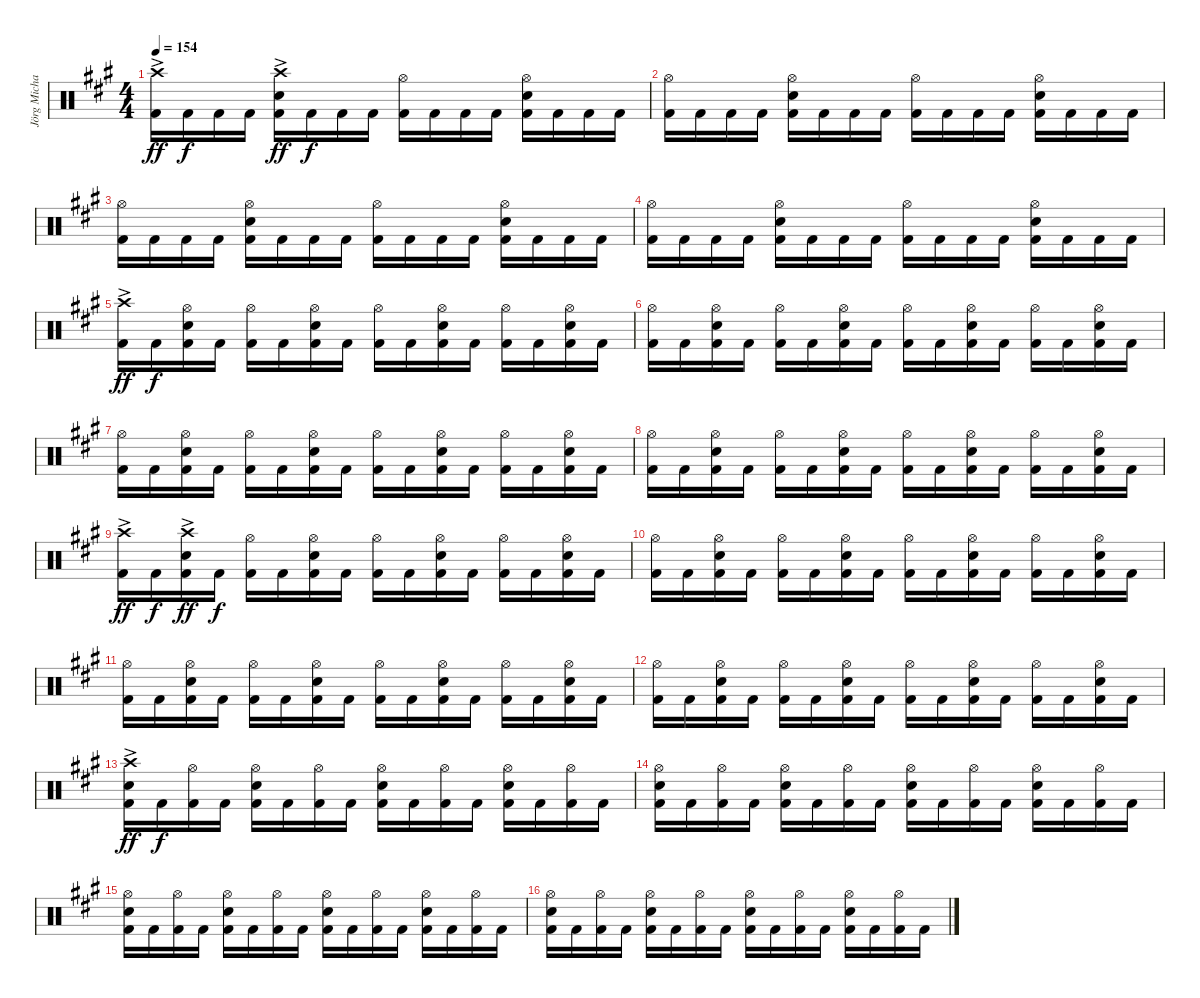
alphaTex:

\track ("Jörg Michael" "Jörg Micha") {instrument percussion}
\staff {score}
\articulation defaults
\ts (4 4)
\tempo 154
\clef neutral
\ks a
("Crash high (hit)"{ac} "Kick (hit) 2"{ac}).16{dy ff} "Kick (hit) 2".16{dy f} "Kick (hit) 2".16 "Kick (hit) 2".16 ("Electric Snare (hit)"{ac} "Kick (hit) 2"{ac} "Crash high (hit)"{ac}).16{dy ff} "Kick (hit) 2".16{dy f} "Kick (hit) 2".16 "Kick (hit) 2".16 ("Kick (hit) 2" "Hi-Hat (open)").16 "Kick (hit) 2".16 "Kick (hit) 2".16 "Kick (hit) 2".16 ("Electric Snare (hit)" "Kick (hit) 2" "Hi-Hat (open)").16 "Kick (hit) 2".16 "Kick (hit) 2".16 "Kick (hit) 2".16 |
("Hi-Hat (open)" "Kick (hit) 2").16 "Kick (hit) 2".16 "Kick (hit) 2".16 "Kick (hit) 2".16 ("Electric Snare (hit)" "Kick (hit) 2" "Hi-Hat (open)").16 "Kick (hit) 2".16 "Kick (hit) 2".16 "Kick (hit) 2".16 ("Kick (hit) 2" "Hi-Hat (open)").16 "Kick (hit) 2".16 "Kick (hit) 2".16 "Kick (hit) 2".16 ("Electric Snare (hit)" "Kick (hit) 2" "Hi-Hat (open)").16 "Kick (hit) 2".16 "Kick (hit) 2".16 "Kick (hit) 2".16 |
("Hi-Hat (open)" "Kick (hit) 2").16 "Kick (hit) 2".16 "Kick (hit) 2".16 "Kick (hit) 2".16 ("Electric Snare (hit)" "Kick (hit) 2" "Hi-Hat (open)").16 "Kick (hit) 2".16 "Kick (hit) 2".16 "Kick (hit) 2".16 ("Kick (hit) 2" "Hi-Hat (open)").16 "Kick (hit) 2".16 "Kick (hit) 2".16 "Kick (hit) 2".16 ("Electric Snare (hit)" "Kick (hit) 2" "Hi-Hat (open)").16 "Kick (hit) 2".16 "Kick (hit) 2".16 "Kick (hit) 2".16 |
("Hi-Hat (open)" "Kick (hit) 2").16 "Kick (hit) 2".16 "Kick (hit) 2".16 "Kick (hit) 2".16 ("Electric Snare (hit)" "Kick (hit) 2" "Hi-Hat (open)").16 "Kick (hit) 2".16 "Kick (hit) 2".16 "Kick (hit) 2".16 ("Kick (hit) 2" "Hi-Hat (open)").16 "Kick (hit) 2".16 "Kick (hit) 2".16 "Kick (hit) 2".16 ("Electric Snare (hit)" "Kick (hit) 2" "Hi-Hat (open)").16 "Kick (hit) 2".16 "Kick (hit) 2".16 "Kick (hit) 2".16 |
("Crash high (hit)"{ac} "Kick (hit) 2"{ac}).16{dy ff} "Kick (hit) 2".16{dy f} ("Electric Snare (hit)" "Kick (hit) 2" "Hi-Hat (open)").16 "Kick (hit) 2".16 ("Hi-Hat (open)" "Kick (hit) 2").16 "Kick (hit) 2".16 ("Hi-Hat (open)" "Kick (hit) 2" "Electric Snare (hit)").16 "Kick (hit) 2".16 ("Kick (hit) 2" "Hi-Hat (open)").16 "Kick (hit) 2".16 ("Hi-Hat (open)" "Kick (hit) 2" "Electric Snare (hit)").16 "Kick (hit) 2".16 ("Kick (hit) 2" "Hi-Hat (open)").16 "Kick (hit) 2".16 ("Hi-Hat (open)" "Kick (hit) 2" "Electric Snare (hit)").16 "Kick (hit) 2".16 |
("Hi-Hat (open)" "Kick (hit) 2").16 "Kick (hit) 2".16 ("Electric Snare (hit)" "Kick (hit) 2" "Hi-Hat (open)").16 "Kick (hit) 2".16 ("Hi-Hat (open)" "Kick (hit) 2").16 "Kick (hit) 2".16 ("Hi-Hat (open)" "Kick (hit) 2" "Electric Snare (hit)").16 "Kick (hit) 2".16 ("Kick (hit) 2" "Hi-Hat (open)").16 "Kick (hit) 2".16 ("Hi-Hat (open)" "Kick (hit) 2" "Electric Snare (hit)").16 "Kick (hit) 2".16 ("Kick (hit) 2" "Hi-Hat (open)").16 "Kick (hit) 2".16 ("Hi-Hat (open)" "Kick (hit) 2" "Electric Snare (hit)").16 "Kick (hit) 2".16 |
("Hi-Hat (open)" "Kick (hit) 2").16 "Kick (hit) 2".16 ("Electric Snare (hit)" "Kick (hit) 2" "Hi-Hat (open)").16 "Kick (hit) 2".16 ("Hi-Hat (open)" "Kick (hit) 2").16 "Kick (hit) 2".16 ("Hi-Hat (open)" "Kick (hit) 2" "Electric Snare (hit)").16 "Kick (hit) 2".16 ("Kick (hit) 2" "Hi-Hat (open)").16 "Kick (hit) 2".16 ("Hi-Hat (open)" "Kick (hit) 2" "Electric Snare (hit)").16 "Kick (hit) 2".16 ("Kick (hit) 2" "Hi-Hat (open)").16 "Kick (hit) 2".16 ("Hi-Hat (open)" "Kick (hit) 2" "Electric Snare (hit)").16 "Kick (hit) 2".16 |
("Hi-Hat (open)" "Kick (hit) 2").16 "Kick (hit) 2".16 ("Electric Snare (hit)" "Kick (hit) 2" "Hi-Hat (open)").16 "Kick (hit) 2".16 ("Hi-Hat (open)" "Kick (hit) 2").16 "Kick (hit) 2".16 ("Hi-Hat (open)" "Kick (hit) 2" "Electric Snare (hit)").16 "Kick (hit) 2".16 ("Kick (hit) 2" "Hi-Hat (open)").16 "Kick (hit) 2".16 ("Hi-Hat (open)" "Kick (hit) 2" "Electric Snare (hit)").16 "Kick (hit) 2".16 ("Kick (hit) 2" "Hi-Hat (open)").16 "Kick (hit) 2".16 ("Hi-Hat (open)" "Kick (hit) 2" "Electric Snare (hit)").16 "Kick (hit) 2".16 |
("Crash high (hit)"{ac} "Kick (hit) 2"{ac}).16{dy ff} "Kick (hit) 2".16{dy f} ("Electric Snare (hit)"{ac} "Kick (hit) 2"{ac} "Crash high (hit)"{ac}).16{dy ff} "Kick (hit) 2".16{dy f} ("Hi-Hat (open)" "Kick (hit) 2").16 "Kick (hit) 2".16 ("Hi-Hat (open)" "Kick (hit) 2" "Electric Snare (hit)").16 "Kick (hit) 2".16 ("Kick (hit) 2" "Hi-Hat (open)").16 "Kick (hit) 2".16 ("Hi-Hat (open)" "Kick (hit) 2" "Electric Snare (hit)").16 "Kick (hit) 2".16 ("Kick (hit) 2" "Hi-Hat (open)").16 "Kick (hit) 2".16 ("Hi-Hat (open)" "Kick (hit) 2" "Electric Snare (hit)").16 "Kick (hit) 2".16 |
("Hi-Hat (open)" "Kick (hit) 2").16 "Kick (hit) 2".16 ("Electric Snare (hit)" "Kick (hit) 2" "Hi-Hat (open)").16 "Kick (hit) 2".16 ("Hi-Hat (open)" "Kick (hit) 2").16 "Kick (hit) 2".16 ("Hi-Hat (open)" "Kick (hit) 2" "Electric Snare (hit)").16 "Kick (hit) 2".16 ("Kick (hit) 2" "Hi-Hat (open)").16 "Kick (hit) 2".16 ("Hi-Hat (open)" "Kick (hit) 2" "Electric Snare (hit)").16 "Kick (hit) 2".16 ("Kick (hit) 2" "Hi-Hat (open)").16 "Kick (hit) 2".16 ("Hi-Hat (open)" "Kick (hit) 2" "Electric Snare (hit)").16 "Kick (hit) 2".16 |
("Hi-Hat (open)" "Kick (hit) 2").16 "Kick (hit) 2".16 ("Electric Snare (hit)" "Kick (hit) 2" "Hi-Hat (open)").16 "Kick (hit) 2".16 ("Hi-Hat (open)" "Kick (hit) 2").16 "Kick (hit) 2".16 ("Hi-Hat (open)" "Kick (hit) 2" "Electric Snare (hit)").16 "Kick (hit) 2".16 ("Kick (hit) 2" "Hi-Hat (open)").16 "Kick (hit) 2".16 ("Hi-Hat (open)" "Kick (hit) 2" "Electric Snare (hit)").16 "Kick (hit) 2".16 ("Kick (hit) 2" "Hi-Hat (open)").16 "Kick (hit) 2".16 ("Hi-Hat (open)" "Kick (hit) 2" "Electric Snare (hit)").16 "Kick (hit) 2".16 |
("Hi-Hat (open)" "Kick (hit) 2").16 "Kick (hit) 2".16 ("Electric Snare (hit)" "Kick (hit) 2" "Hi-Hat (open)").16 "Kick (hit) 2".16 ("Hi-Hat (open)" "Kick (hit) 2").16 "Kick (hit) 2".16 ("Hi-Hat (open)" "Kick (hit) 2" "Electric Snare (hit)").16 "Kick (hit) 2".16 ("Kick (hit) 2" "Hi-Hat (open)").16 "Kick (hit) 2".16 ("Hi-Hat (open)" "Kick (hit) 2" "Electric Snare (hit)").16 "Kick (hit) 2".16 ("Kick (hit) 2" "Hi-Hat (open)").16 "Kick (hit) 2".16 ("Hi-Hat (open)" "Kick (hit) 2" "Electric Snare (hit)").16 "Kick (hit) 2".16 |
("Crash high (hit)"{ac} "Kick (hit) 2"{ac} "Electric Snare (hit)").16{dy ff} "Kick (hit) 2".16{dy f} ("Kick (hit) 2" "Hi-Hat (open)").16 "Kick (hit) 2".16 ("Hi-Hat (open)" "Kick (hit) 2" "Electric Snare (hit)").16 "Kick (hit) 2".16 ("Hi-Hat (open)" "Kick (hit) 2").16 "Kick (hit) 2".16 ("Hi-Hat (open)" "Kick (hit) 2" "Electric Snare (hit)").16 "Kick (hit) 2".16 ("Hi-Hat (open)" "Kick (hit) 2").16 "Kick (hit) 2".16 ("Hi-Hat (open)" "Kick (hit) 2" "Electric Snare (hit)").16 "Kick (hit) 2".16 ("Hi-Hat (open)" "Kick (hit) 2").16 "Kick (hit) 2".16 |
("Hi-Hat (open)" "Kick (hit) 2" "Electric Snare (hit)").16 "Kick (hit) 2".16 ("Kick (hit) 2" "Hi-Hat (open)").16 "Kick (hit) 2".16 ("Hi-Hat (open)" "Kick (hit) 2" "Electric Snare (hit)").16 "Kick (hit) 2".16 ("Hi-Hat (open)" "Kick (hit) 2").16 "Kick (hit) 2".16 ("Hi-Hat (open)" "Kick (hit) 2" "Electric Snare (hit)").16 "Kick (hit) 2".16 ("Hi-Hat (open)" "Kick (hit) 2").16 "Kick (hit) 2".16 ("Hi-Hat (open)" "Kick (hit) 2" "Electric Snare (hit)").16 "Kick (hit) 2".16 ("Hi-Hat (open)" "Kick (hit) 2").16 "Kick (hit) 2".16 |
("Hi-Hat (open)" "Kick (hit) 2" "Electric Snare (hit)").16 "Kick (hit) 2".16 ("Kick (hit) 2" "Hi-Hat (open)").16 "Kick (hit) 2".16 ("Hi-Hat (open)" "Kick (hit) 2" "Electric Snare (hit)").16 "Kick (hit) 2".16 ("Hi-Hat (open)" "Kick (hit) 2").16 "Kick (hit) 2".16 ("Hi-Hat (open)" "Kick (hit) 2" "Electric Snare (hit)").16 "Kick (hit) 2".16 ("Hi-Hat (open)" "Kick (hit) 2").16 "Kick (hit) 2".16 ("Hi-Hat (open)" "Kick (hit) 2" "Electric Snare (hit)").16 "Kick (hit) 2".16 ("Hi-Hat (open)" "Kick (hit) 2").16 "Kick (hit) 2".16 |
("Hi-Hat (open)" "Kick (hit) 2" "Electric Snare (hit)").16 "Kick (hit) 2".16 ("Kick (hit) 2" "Hi-Hat (open)").16 "Kick (hit) 2".16 ("Hi-Hat (open)" "Kick (hit) 2" "Electric Snare (hit)").16 "Kick (hit) 2".16 ("Hi-Hat (open)" "Kick (hit) 2").16 "Kick (hit) 2".16 ("Hi-Hat (open)" "Kick (hit) 2" "Electric Snare (hit)").16 "Kick (hit) 2".16 ("Hi-Hat (open)" "Kick (hit) 2").16 "Kick (hit) 2".16 ("Hi-Hat (open)" "Kick (hit) 2" "Electric Snare (hit)").16 "Kick (hit) 2".16 ("Hi-Hat (open)" "Kick (hit) 2").16 "Kick (hit) 2".16
